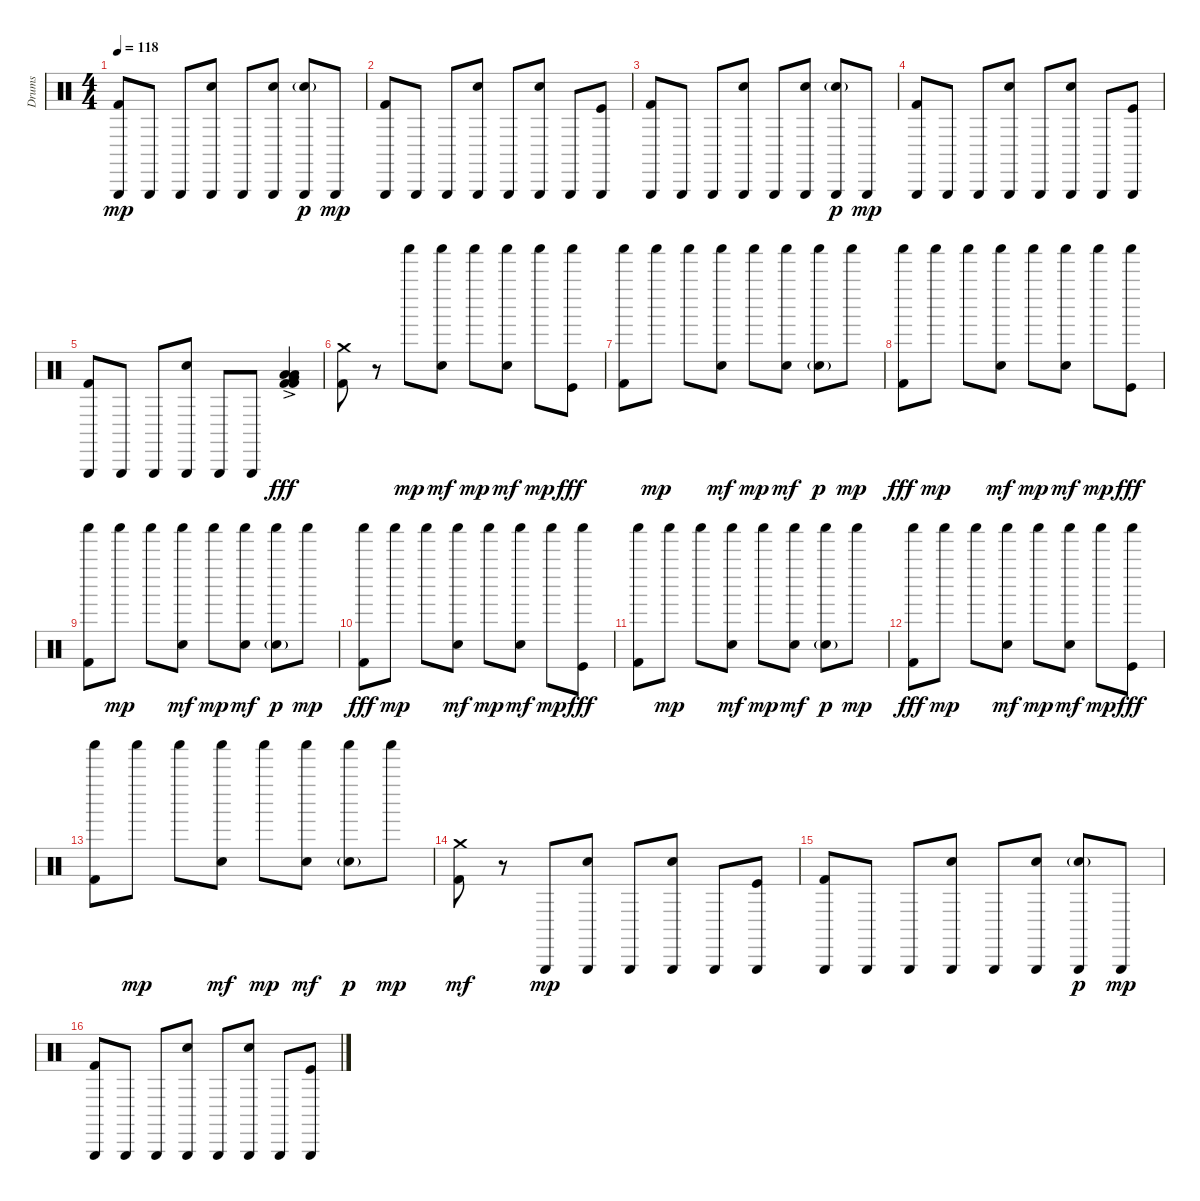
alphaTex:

\track ("Drums" "Drums") {instrument percussion}
\staff {score}
\articulation defaults
\ts (4 4)
\tempo 118
\clef neutral
\ks c
("Triangle (hit)" "Kick (hit) 2").8{dy mp} "Triangle (hit)".8 "Triangle (hit)".8 ("Triangle (hit)" "Electric Snare (hit)").8 "Triangle (hit)".8 ("Triangle (hit)" "Electric Snare (hit)").8 ("Triangle (hit)" "Electric Snare (hit)"{g}).8{dy p} "Triangle (hit)".8{dy mp} |
("Triangle (hit)" "Kick (hit) 2").8 "Triangle (hit)".8 "Triangle (hit)".8 ("Triangle (hit)" "Electric Snare (hit)").8 "Triangle (hit)".8 ("Triangle (hit)" "Electric Snare (hit)").8 "Triangle (hit)".8 ("Triangle (hit)" "Kick (hit)").8 |
("Triangle (hit)" "Kick (hit) 2").8 "Triangle (hit)".8 "Triangle (hit)".8 ("Triangle (hit)" "Electric Snare (hit)").8 "Triangle (hit)".8 ("Triangle (hit)" "Electric Snare (hit)").8 ("Triangle (hit)" "Electric Snare (hit)"{g}).8{dy p} "Triangle (hit)".8{dy mp} |
("Triangle (hit)" "Kick (hit) 2").8 "Triangle (hit)".8 "Triangle (hit)".8 ("Triangle (hit)" "Electric Snare (hit)").8 "Triangle (hit)".8 ("Triangle (hit)" "Electric Snare (hit)").8 "Triangle (hit)".8 ("Triangle (hit)" "Kick (hit)").8 |
("Triangle (hit)" "Kick (hit) 2").8 "Triangle (hit)".8 "Triangle (hit)".8 ("Triangle (hit)" "Electric Snare (hit)").8 "Triangle (hit)".8 "Triangle (hit)".8 ("Low Floor Tom (hit)"{ac} "Kick (hit) 2"{ac} "Kick (hit) 2"{ac} "Low Floor Tom (hit)"{ac} "Very Low Tom (hit)"{ac}).4{dy fff} |
("Crash medium (hit)" "Kick (hit) 2").8 r.8 "Shaker (hit)".8{dy mp} ("Shaker (hit)" "Electric Snare (hit)").8{dy mf} "Shaker (hit)".8{dy mp} ("Shaker (hit)" "Snare (hit) 2").8{dy mf} "Shaker (hit)".8{dy mp} ("Shaker (hit)" "Kick (hit)").8{dy fff} |
("Shaker (hit)" "Kick (hit) 2").8 "Shaker (hit)".8{dy mp} "Shaker (hit)".8 ("Shaker (hit)" "Electric Snare (hit)").8{dy mf} "Shaker (hit)".8{dy mp} ("Shaker (hit)" "Snare (hit) 2").8{dy mf} ("Shaker (hit)" "Electric Snare (hit)"{g}).8{dy p} "Shaker (hit)".8{dy mp} |
("Shaker (hit)" "Kick (hit) 2").8{dy fff} "Shaker (hit)".8{dy mp} "Shaker (hit)".8 ("Shaker (hit)" "Electric Snare (hit)").8{dy mf} "Shaker (hit)".8{dy mp} ("Shaker (hit)" "Snare (hit) 2").8{dy mf} "Shaker (hit)".8{dy mp} ("Shaker (hit)" "Kick (hit)").8{dy fff} |
("Shaker (hit)" "Kick (hit) 2").8 "Shaker (hit)".8{dy mp} "Shaker (hit)".8 ("Shaker (hit)" "Electric Snare (hit)").8{dy mf} "Shaker (hit)".8{dy mp} ("Shaker (hit)" "Snare (hit) 2").8{dy mf} ("Shaker (hit)" "Electric Snare (hit)"{g}).8{dy p} "Shaker (hit)".8{dy mp} |
("Shaker (hit)" "Kick (hit) 2").8{dy fff} "Shaker (hit)".8{dy mp} "Shaker (hit)".8 ("Shaker (hit)" "Electric Snare (hit)").8{dy mf} "Shaker (hit)".8{dy mp} ("Shaker (hit)" "Snare (hit) 2").8{dy mf} "Shaker (hit)".8{dy mp} ("Shaker (hit)" "Kick (hit)").8{dy fff} |
("Shaker (hit)" "Kick (hit) 2").8 "Shaker (hit)".8{dy mp} "Shaker (hit)".8 ("Shaker (hit)" "Electric Snare (hit)").8{dy mf} "Shaker (hit)".8{dy mp} ("Shaker (hit)" "Snare (hit) 2").8{dy mf} ("Shaker (hit)" "Electric Snare (hit)"{g}).8{dy p} "Shaker (hit)".8{dy mp} |
("Shaker (hit)" "Kick (hit) 2").8{dy fff} "Shaker (hit)".8{dy mp} "Shaker (hit)".8 ("Shaker (hit)" "Electric Snare (hit)").8{dy mf} "Shaker (hit)".8{dy mp} ("Shaker (hit)" "Snare (hit) 2").8{dy mf} "Shaker (hit)".8{dy mp} ("Shaker (hit)" "Kick (hit)").8{dy fff} |
("Shaker (hit)" "Kick (hit) 2").8 "Shaker (hit)".8{dy mp} "Shaker (hit)".8 ("Shaker (hit)" "Electric Snare (hit)").8{dy mf} "Shaker (hit)".8{dy mp} ("Shaker (hit)" "Snare (hit) 2").8{dy mf} ("Shaker (hit)" "Electric Snare (hit)"{g}).8{dy p} "Shaker (hit)".8{dy mp} |
("Crash medium (hit)" "Kick (hit) 2").8{dy mf} r.8 "Triangle (hit)".8{dy mp} ("Triangle (hit)" "Electric Snare (hit)").8 "Triangle (hit)".8 ("Triangle (hit)" "Electric Snare (hit)").8 "Triangle (hit)".8 ("Triangle (hit)" "Kick (hit)").8 |
("Triangle (hit)" "Kick (hit) 2").8 "Triangle (hit)".8 "Triangle (hit)".8 ("Triangle (hit)" "Electric Snare (hit)").8 "Triangle (hit)".8 ("Triangle (hit)" "Electric Snare (hit)").8 ("Triangle (hit)" "Electric Snare (hit)"{g}).8{dy p} "Triangle (hit)".8{dy mp} |
("Triangle (hit)" "Kick (hit) 2").8 "Triangle (hit)".8 "Triangle (hit)".8 ("Triangle (hit)" "Electric Snare (hit)").8 "Triangle (hit)".8 ("Triangle (hit)" "Electric Snare (hit)").8 "Triangle (hit)".8 ("Triangle (hit)" "Kick (hit)").8
